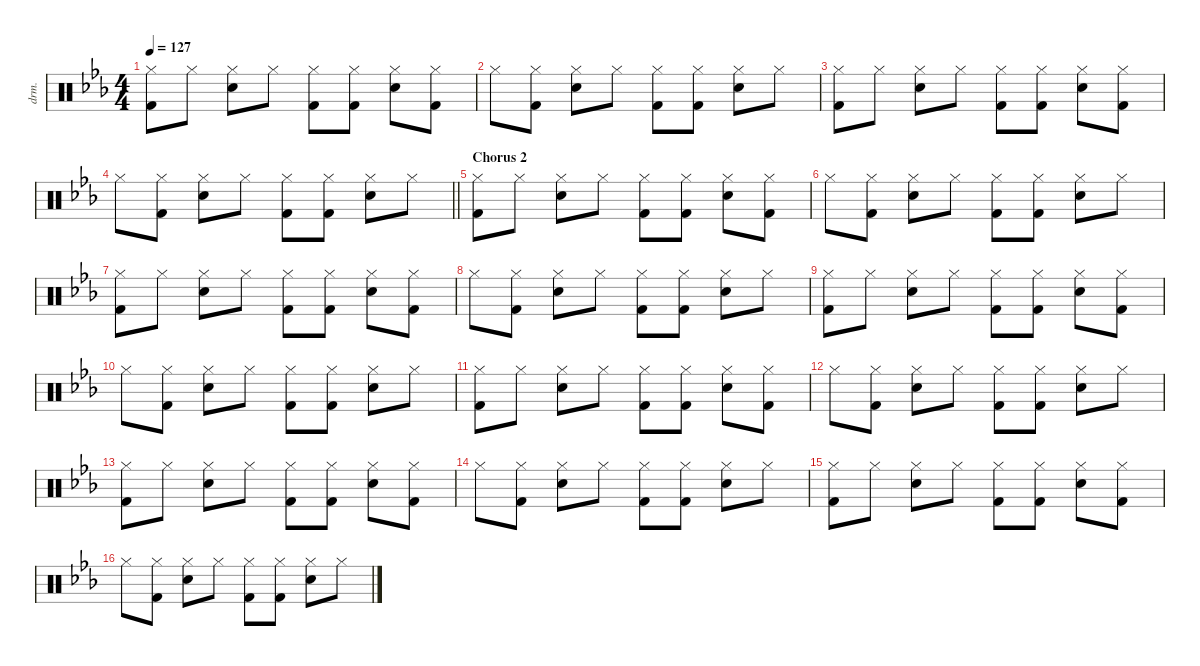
\defaultSystemsLayout 4
\hideDynamics
\bracketExtendMode nobrackets
\otherSystemsTrackNameOrientation horizontal
\track ("Drums" "drm.") {defaultSystemsLayout 4 instrument percussion}
\staff {score}
\articulation defaults
\ts (4 4)
\tempo 127
\clef neutral
\ks eb
("Hi-Hat (closed)"{acc forcenatural} "Kick (hit) 2"{acc forcenatural}).8{dy f beam Down} "Hi-Hat (closed)"{acc forcenatural}.8{beam Down} ("Hi-Hat (closed)"{acc forcenatural} "Snare (hit) 2"{acc forcenatural}).8{beam Down} "Hi-Hat (closed)"{acc forcenatural}.8{beam Down} ("Hi-Hat (closed)"{acc forcenatural} "Kick (hit) 2"{acc forcenatural}).8{beam Down} ("Hi-Hat (closed)"{acc forcenatural} "Kick (hit) 2"{acc forcenatural}).8{beam Down} ("Hi-Hat (closed)"{acc forcenatural} "Snare (hit) 2"{acc forcenatural}).8{beam Down} ("Hi-Hat (closed)"{acc forcenatural} "Kick (hit) 2"{acc forcenatural}).8{beam Down} |
"Hi-Hat (closed)"{acc forcenatural}.8{beam Down} ("Hi-Hat (closed)"{acc forcenatural} "Kick (hit) 2"{acc forcenatural}).8{beam Down} ("Hi-Hat (closed)"{acc forcenatural} "Snare (hit) 2"{acc forcenatural}).8{beam Down} "Hi-Hat (closed)"{acc forcenatural}.8{beam Down} ("Hi-Hat (closed)"{acc forcenatural} "Kick (hit) 2"{acc forcenatural}).8{beam Down} ("Hi-Hat (closed)"{acc forcenatural} "Kick (hit) 2"{acc forcenatural}).8{beam Down} ("Hi-Hat (closed)"{acc forcenatural} "Snare (hit) 2"{acc forcenatural}).8{beam Down} "Hi-Hat (closed)"{acc forcenatural}.8{beam Down} |
("Hi-Hat (closed)"{acc forcenatural} "Kick (hit) 2"{acc forcenatural}).8{beam Down} "Hi-Hat (closed)"{acc forcenatural}.8{beam Down} ("Hi-Hat (closed)"{acc forcenatural} "Snare (hit) 2"{acc forcenatural}).8{beam Down} "Hi-Hat (closed)"{acc forcenatural}.8{beam Down} ("Hi-Hat (closed)"{acc forcenatural} "Kick (hit) 2"{acc forcenatural}).8{beam Down} ("Hi-Hat (closed)"{acc forcenatural} "Kick (hit) 2"{acc forcenatural}).8{beam Down} ("Hi-Hat (closed)"{acc forcenatural} "Snare (hit) 2"{acc forcenatural}).8{beam Down} ("Hi-Hat (closed)"{acc forcenatural} "Kick (hit) 2"{acc forcenatural}).8{beam Down} |
\barLineRight lightlight "Hi-Hat (closed)"{acc forcenatural}.8{beam Down}
("Hi-Hat (closed)"{acc forcenatural} "Kick (hit) 2"{acc forcenatural}).8{beam Down} ("Hi-Hat (closed)"{acc forcenatural} "Snare (hit) 2"{acc forcenatural}).8{beam Down} "Hi-Hat (closed)"{acc forcenatural}.8{beam Down} ("Hi-Hat (closed)"{acc forcenatural} "Kick (hit) 2"{acc forcenatural}).8{beam Down} ("Hi-Hat (closed)"{acc forcenatural} "Kick (hit) 2"{acc forcenatural}).8{beam Down} ("Hi-Hat (closed)"{acc forcenatural} "Snare (hit) 2"{acc forcenatural}).8{beam Down} "Hi-Hat (closed)"{acc forcenatural}.8{beam Down} |
\section ("" "Chorus 2")
("Hi-Hat (closed)"{acc forcenatural} "Kick (hit) 2"{acc forcenatural}).8{beam Down} "Hi-Hat (closed)"{acc forcenatural}.8{beam Down} ("Hi-Hat (closed)"{acc forcenatural} "Snare (hit) 2"{acc forcenatural}).8{beam Down} "Hi-Hat (closed)"{acc forcenatural}.8{beam Down} ("Hi-Hat (closed)"{acc forcenatural} "Kick (hit) 2"{acc forcenatural}).8{beam Down} ("Hi-Hat (closed)"{acc forcenatural} "Kick (hit) 2"{acc forcenatural}).8{beam Down} ("Hi-Hat (closed)"{acc forcenatural} "Snare (hit) 2"{acc forcenatural}).8{beam Down} ("Hi-Hat (closed)"{acc forcenatural} "Kick (hit) 2"{acc forcenatural}).8{beam Down} |
"Hi-Hat (closed)"{acc forcenatural}.8{beam Down} ("Hi-Hat (closed)"{acc forcenatural} "Kick (hit) 2"{acc forcenatural}).8{beam Down} ("Hi-Hat (closed)"{acc forcenatural} "Snare (hit) 2"{acc forcenatural}).8{beam Down} "Hi-Hat (closed)"{acc forcenatural}.8{beam Down} ("Hi-Hat (closed)"{acc forcenatural} "Kick (hit) 2"{acc forcenatural}).8{beam Down} ("Hi-Hat (closed)"{acc forcenatural} "Kick (hit) 2"{acc forcenatural}).8{beam Down} ("Hi-Hat (closed)"{acc forcenatural} "Snare (hit) 2"{acc forcenatural}).8{beam Down} "Hi-Hat (closed)"{acc forcenatural}.8{beam Down} |
("Hi-Hat (closed)"{acc forcenatural} "Kick (hit) 2"{acc forcenatural}).8{beam Down} "Hi-Hat (closed)"{acc forcenatural}.8{beam Down} ("Hi-Hat (closed)"{acc forcenatural} "Snare (hit) 2"{acc forcenatural}).8{beam Down} "Hi-Hat (closed)"{acc forcenatural}.8{beam Down} ("Hi-Hat (closed)"{acc forcenatural} "Kick (hit) 2"{acc forcenatural}).8{beam Down} ("Hi-Hat (closed)"{acc forcenatural} "Kick (hit) 2"{acc forcenatural}).8{beam Down} ("Hi-Hat (closed)"{acc forcenatural} "Snare (hit) 2"{acc forcenatural}).8{beam Down} ("Hi-Hat (closed)"{acc forcenatural} "Kick (hit) 2"{acc forcenatural}).8{beam Down} |
"Hi-Hat (closed)"{acc forcenatural}.8{beam Down} ("Hi-Hat (closed)"{acc forcenatural} "Kick (hit) 2"{acc forcenatural}).8{beam Down} ("Hi-Hat (closed)"{acc forcenatural} "Snare (hit) 2"{acc forcenatural}).8{beam Down} "Hi-Hat (closed)"{acc forcenatural}.8{beam Down} ("Hi-Hat (closed)"{acc forcenatural} "Kick (hit) 2"{acc forcenatural}).8{beam Down} ("Hi-Hat (closed)"{acc forcenatural} "Kick (hit) 2"{acc forcenatural}).8{beam Down} ("Hi-Hat (closed)"{acc forcenatural} "Snare (hit) 2"{acc forcenatural}).8{beam Down} "Hi-Hat (closed)"{acc forcenatural}.8{beam Down} |
("Hi-Hat (closed)"{acc forcenatural} "Kick (hit) 2"{acc forcenatural}).8{beam Down} "Hi-Hat (closed)"{acc forcenatural}.8{beam Down} ("Hi-Hat (closed)"{acc forcenatural} "Snare (hit) 2"{acc forcenatural}).8{beam Down} "Hi-Hat (closed)"{acc forcenatural}.8{beam Down} ("Hi-Hat (closed)"{acc forcenatural} "Kick (hit) 2"{acc forcenatural}).8{beam Down} ("Hi-Hat (closed)"{acc forcenatural} "Kick (hit) 2"{acc forcenatural}).8{beam Down} ("Hi-Hat (closed)"{acc forcenatural} "Snare (hit) 2"{acc forcenatural}).8{beam Down} ("Hi-Hat (closed)"{acc forcenatural} "Kick (hit) 2"{acc forcenatural}).8{beam Down} |
"Hi-Hat (closed)"{acc forcenatural}.8{beam Down} ("Hi-Hat (closed)"{acc forcenatural} "Kick (hit) 2"{acc forcenatural}).8{beam Down} ("Hi-Hat (closed)"{acc forcenatural} "Snare (hit) 2"{acc forcenatural}).8{beam Down} "Hi-Hat (closed)"{acc forcenatural}.8{beam Down} ("Hi-Hat (closed)"{acc forcenatural} "Kick (hit) 2"{acc forcenatural}).8{beam Down} ("Hi-Hat (closed)"{acc forcenatural} "Kick (hit) 2"{acc forcenatural}).8{beam Down} ("Hi-Hat (closed)"{acc forcenatural} "Snare (hit) 2"{acc forcenatural}).8{beam Down} "Hi-Hat (closed)"{acc forcenatural}.8{beam Down} |
("Hi-Hat (closed)"{acc forcenatural} "Kick (hit) 2"{acc forcenatural}).8{beam Down} "Hi-Hat (closed)"{acc forcenatural}.8{beam Down} ("Hi-Hat (closed)"{acc forcenatural} "Snare (hit) 2"{acc forcenatural}).8{beam Down} "Hi-Hat (closed)"{acc forcenatural}.8{beam Down} ("Hi-Hat (closed)"{acc forcenatural} "Kick (hit) 2"{acc forcenatural}).8{beam Down} ("Hi-Hat (closed)"{acc forcenatural} "Kick (hit) 2"{acc forcenatural}).8{beam Down} ("Hi-Hat (closed)"{acc forcenatural} "Snare (hit) 2"{acc forcenatural}).8{beam Down} ("Hi-Hat (closed)"{acc forcenatural} "Kick (hit) 2"{acc forcenatural}).8{beam Down} |
"Hi-Hat (closed)"{acc forcenatural}.8{beam Down} ("Hi-Hat (closed)"{acc forcenatural} "Kick (hit) 2"{acc forcenatural}).8{beam Down} ("Hi-Hat (closed)"{acc forcenatural} "Snare (hit) 2"{acc forcenatural}).8{beam Down} "Hi-Hat (closed)"{acc forcenatural}.8{beam Down} ("Hi-Hat (closed)"{acc forcenatural} "Kick (hit) 2"{acc forcenatural}).8{beam Down} ("Hi-Hat (closed)"{acc forcenatural} "Kick (hit) 2"{acc forcenatural}).8{beam Down} ("Hi-Hat (closed)"{acc forcenatural} "Snare (hit) 2"{acc forcenatural}).8{beam Down} "Hi-Hat (closed)"{acc forcenatural}.8{beam Down} |
("Hi-Hat (closed)"{acc forcenatural} "Kick (hit) 2"{acc forcenatural}).8{beam Down} "Hi-Hat (closed)"{acc forcenatural}.8{beam Down} ("Hi-Hat (closed)"{acc forcenatural} "Snare (hit) 2"{acc forcenatural}).8{beam Down} "Hi-Hat (closed)"{acc forcenatural}.8{beam Down} ("Hi-Hat (closed)"{acc forcenatural} "Kick (hit) 2"{acc forcenatural}).8{beam Down} ("Hi-Hat (closed)"{acc forcenatural} "Kick (hit) 2"{acc forcenatural}).8{beam Down} ("Hi-Hat (closed)"{acc forcenatural} "Snare (hit) 2"{acc forcenatural}).8{beam Down} ("Hi-Hat (closed)"{acc forcenatural} "Kick (hit) 2"{acc forcenatural}).8{beam Down} |
"Hi-Hat (closed)"{acc forcenatural}.8{beam Down} ("Hi-Hat (closed)"{acc forcenatural} "Kick (hit) 2"{acc forcenatural}).8{beam Down} ("Hi-Hat (closed)"{acc forcenatural} "Snare (hit) 2"{acc forcenatural}).8{beam Down} "Hi-Hat (closed)"{acc forcenatural}.8{beam Down} ("Hi-Hat (closed)"{acc forcenatural} "Kick (hit) 2"{acc forcenatural}).8{beam Down} ("Hi-Hat (closed)"{acc forcenatural} "Kick (hit) 2"{acc forcenatural}).8{beam Down} ("Hi-Hat (closed)"{acc forcenatural} "Snare (hit) 2"{acc forcenatural}).8{beam Down} "Hi-Hat (closed)"{acc forcenatural}.8{beam Down} |
("Hi-Hat (closed)"{acc forcenatural} "Kick (hit) 2"{acc forcenatural}).8{beam Down} "Hi-Hat (closed)"{acc forcenatural}.8{beam Down} ("Hi-Hat (closed)"{acc forcenatural} "Snare (hit) 2"{acc forcenatural}).8{beam Down} "Hi-Hat (closed)"{acc forcenatural}.8{beam Down} ("Hi-Hat (closed)"{acc forcenatural} "Kick (hit) 2"{acc forcenatural}).8{beam Down} ("Hi-Hat (closed)"{acc forcenatural} "Kick (hit) 2"{acc forcenatural}).8{beam Down} ("Hi-Hat (closed)"{acc forcenatural} "Snare (hit) 2"{acc forcenatural}).8{beam Down} ("Hi-Hat (closed)"{acc forcenatural} "Kick (hit) 2"{acc forcenatural}).8{beam Down} |
"Hi-Hat (closed)"{acc forcenatural}.8{beam Down} ("Hi-Hat (closed)"{acc forcenatural} "Kick (hit) 2"{acc forcenatural}).8{beam Down} ("Hi-Hat (closed)"{acc forcenatural} "Snare (hit) 2"{acc forcenatural}).8{beam Down} "Hi-Hat (closed)"{acc forcenatural}.8{beam Down} ("Hi-Hat (closed)"{acc forcenatural} "Kick (hit) 2"{acc forcenatural}).8{beam Down} ("Hi-Hat (closed)"{acc forcenatural} "Kick (hit) 2"{acc forcenatural}).8{beam Down} ("Hi-Hat (closed)"{acc forcenatural} "Snare (hit) 2"{acc forcenatural}).8{beam Down} "Hi-Hat (closed)"{acc forcenatural}.8{beam Down}
